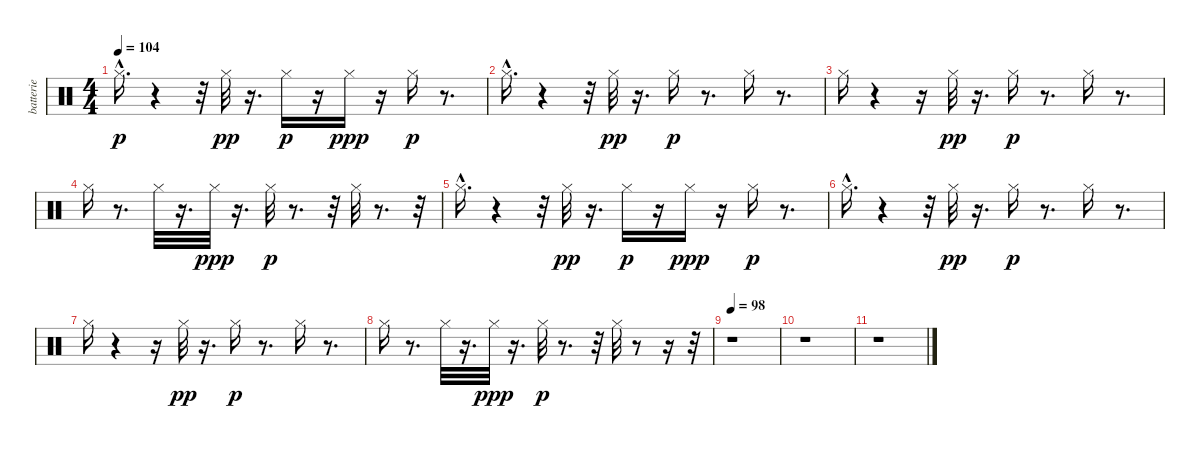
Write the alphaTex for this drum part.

\track ("batterie" "batterie") {instrument percussion}
\staff {score}
\articulation defaults
\ts (4 4)
\tempo 104
\clef neutral
\ks c "Hi-Hat (closed)"{hac}.16{d dy p}
r.4 r.32 "Hi-Hat (closed)".32{dy pp} r.16{d} "Hi-Hat (closed)".16{dy p} r.16 "Hi-Hat (closed)".16{dy ppp} r.16 "Hi-Hat (closed)".16{dy p} r.8{d} |
"Hi-Hat (closed)"{hac}.16{d} r.4 r.32 "Hi-Hat (closed)".32{dy pp} r.16{d} "Hi-Hat (closed)".16{dy p} r.8{d} "Hi-Hat (closed)".16 r.8{d} |
"Hi-Hat (closed)".16 r.4 r.16 "Hi-Hat (closed)".32{dy pp} r.16{d} "Hi-Hat (closed)".16{dy p} r.8{d} "Hi-Hat (closed)".16 r.8{d} |
"Hi-Hat (closed)".16 r.8{d} "Hi-Hat (closed)".32 r.16{d} "Hi-Hat (closed)".32{dy ppp} r.16{d} "Hi-Hat (closed)".32{dy p} r.8{d} r.32 "Hi-Hat (closed)".32 r.8{d} r.32 |
"Hi-Hat (closed)"{hac}.16{d} r.4 r.32 "Hi-Hat (closed)".32{dy pp} r.16{d} "Hi-Hat (closed)".16{dy p} r.16 "Hi-Hat (closed)".16{dy ppp} r.16 "Hi-Hat (closed)".16{dy p} r.8{d} |
"Hi-Hat (closed)"{hac}.16{d} r.4 r.32 "Hi-Hat (closed)".32{dy pp} r.16{d} "Hi-Hat (closed)".16{dy p} r.8{d} "Hi-Hat (closed)".16 r.8{d} |
"Hi-Hat (closed)".16 r.4 r.16 "Hi-Hat (closed)".32{dy pp} r.16{d} "Hi-Hat (closed)".16{dy p} r.8{d} "Hi-Hat (closed)".16 r.8{d} |
"Hi-Hat (closed)".16 r.8{d} "Hi-Hat (closed)".32 r.16{d} "Hi-Hat (closed)".32{dy ppp} r.16{d} "Hi-Hat (closed)".32{dy p} r.8{d} r.32 "Hi-Hat (closed)".32 r.8 r.16 r.32 |
\tempo 98
r.1 |
r.1 |
r.1
